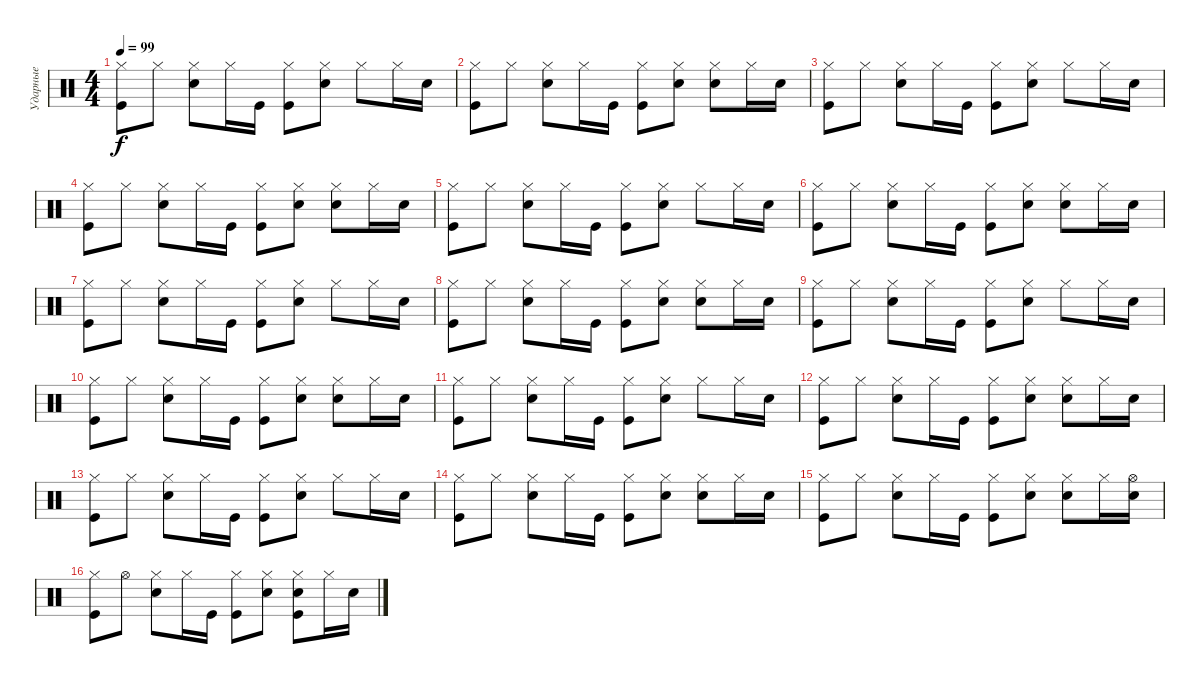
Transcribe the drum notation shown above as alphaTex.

\track ("Ударные" "Ударные") {instrument percussion}
\staff {score}
\articulation defaults
\ts (4 4)
\tempo 99
\clef neutral
\ks c
("Kick (hit)" "Hi-Hat (closed)").8{dy f} "Hi-Hat (closed)".8 ("Snare (hit) 2" "Hi-Hat (closed)").8 "Hi-Hat (closed)".16 "Kick (hit)".16 ("Hi-Hat (closed)" "Kick (hit)").8 ("Snare (hit) 2" "Hi-Hat (closed)").8 "Hi-Hat (closed)".8 "Hi-Hat (closed)".16 "Snare (hit) 2".16 |
("Kick (hit)" "Hi-Hat (closed)").8 "Hi-Hat (closed)".8 ("Snare (hit) 2" "Hi-Hat (closed)").8 "Hi-Hat (closed)".16 "Kick (hit)".16 ("Hi-Hat (closed)" "Kick (hit)").8 ("Snare (hit) 2" "Hi-Hat (closed)").8 ("Hi-Hat (closed)" "Snare (hit) 2").8 "Hi-Hat (closed)".16 "Snare (hit) 2".16 |
("Kick (hit)" "Hi-Hat (closed)").8 "Hi-Hat (closed)".8 ("Snare (hit) 2" "Hi-Hat (closed)").8 "Hi-Hat (closed)".16 "Kick (hit)".16 ("Hi-Hat (closed)" "Kick (hit)").8 ("Snare (hit) 2" "Hi-Hat (closed)").8 "Hi-Hat (closed)".8 "Hi-Hat (closed)".16 "Snare (hit) 2".16 |
("Kick (hit)" "Hi-Hat (closed)").8 "Hi-Hat (closed)".8 ("Snare (hit) 2" "Hi-Hat (closed)").8 "Hi-Hat (closed)".16 "Kick (hit)".16 ("Hi-Hat (closed)" "Kick (hit)").8 ("Snare (hit) 2" "Hi-Hat (closed)").8 ("Hi-Hat (closed)" "Snare (hit) 2").8 "Hi-Hat (closed)".16 "Snare (hit) 2".16 |
("Kick (hit)" "Hi-Hat (closed)").8 "Hi-Hat (closed)".8 ("Snare (hit) 2" "Hi-Hat (closed)").8 "Hi-Hat (closed)".16 "Kick (hit)".16 ("Hi-Hat (closed)" "Kick (hit)").8 ("Snare (hit) 2" "Hi-Hat (closed)").8 "Hi-Hat (closed)".8 "Hi-Hat (closed)".16 "Snare (hit) 2".16 |
("Kick (hit)" "Hi-Hat (closed)").8 "Hi-Hat (closed)".8 ("Snare (hit) 2" "Hi-Hat (closed)").8 "Hi-Hat (closed)".16 "Kick (hit)".16 ("Hi-Hat (closed)" "Kick (hit)").8 ("Snare (hit) 2" "Hi-Hat (closed)").8 ("Hi-Hat (closed)" "Snare (hit) 2").8 "Hi-Hat (closed)".16 "Snare (hit) 2".16 |
("Kick (hit)" "Hi-Hat (closed)").8 "Hi-Hat (closed)".8 ("Snare (hit) 2" "Hi-Hat (closed)").8 "Hi-Hat (closed)".16 "Kick (hit)".16 ("Hi-Hat (closed)" "Kick (hit)").8 ("Snare (hit) 2" "Hi-Hat (closed)").8 "Hi-Hat (closed)".8 "Hi-Hat (closed)".16 "Snare (hit) 2".16 |
("Kick (hit)" "Hi-Hat (closed)").8 "Hi-Hat (closed)".8 ("Snare (hit) 2" "Hi-Hat (closed)").8 "Hi-Hat (closed)".16 "Kick (hit)".16 ("Hi-Hat (closed)" "Kick (hit)").8 ("Snare (hit) 2" "Hi-Hat (closed)").8 ("Hi-Hat (closed)" "Snare (hit) 2").8 "Hi-Hat (closed)".16 "Snare (hit) 2".16 |
("Kick (hit)" "Hi-Hat (closed)").8 "Hi-Hat (closed)".8 ("Snare (hit) 2" "Hi-Hat (closed)").8 "Hi-Hat (closed)".16 "Kick (hit)".16 ("Hi-Hat (closed)" "Kick (hit)").8 ("Snare (hit) 2" "Hi-Hat (closed)").8 "Hi-Hat (closed)".8 "Hi-Hat (closed)".16 "Snare (hit) 2".16 |
("Kick (hit)" "Hi-Hat (closed)").8 "Hi-Hat (closed)".8 ("Snare (hit) 2" "Hi-Hat (closed)").8 "Hi-Hat (closed)".16 "Kick (hit)".16 ("Hi-Hat (closed)" "Kick (hit)").8 ("Snare (hit) 2" "Hi-Hat (closed)").8 ("Hi-Hat (closed)" "Snare (hit) 2").8 "Hi-Hat (closed)".16 "Snare (hit) 2".16 |
("Kick (hit)" "Hi-Hat (closed)").8 "Hi-Hat (closed)".8 ("Snare (hit) 2" "Hi-Hat (closed)").8 "Hi-Hat (closed)".16 "Kick (hit)".16 ("Hi-Hat (closed)" "Kick (hit)").8 ("Snare (hit) 2" "Hi-Hat (closed)").8 "Hi-Hat (closed)".8 "Hi-Hat (closed)".16 "Snare (hit) 2".16 |
("Kick (hit)" "Hi-Hat (closed)").8 "Hi-Hat (closed)".8 ("Snare (hit) 2" "Hi-Hat (closed)").8 "Hi-Hat (closed)".16 "Kick (hit)".16 ("Hi-Hat (closed)" "Kick (hit)").8 ("Snare (hit) 2" "Hi-Hat (closed)").8 ("Hi-Hat (closed)" "Snare (hit) 2").8 "Hi-Hat (closed)".16 "Snare (hit) 2".16 |
("Kick (hit)" "Hi-Hat (closed)").8 "Hi-Hat (closed)".8 ("Snare (hit) 2" "Hi-Hat (closed)").8 "Hi-Hat (closed)".16 "Kick (hit)".16 ("Hi-Hat (closed)" "Kick (hit)").8 ("Snare (hit) 2" "Hi-Hat (closed)").8 "Hi-Hat (closed)".8 "Hi-Hat (closed)".16 "Snare (hit) 2".16 |
("Kick (hit)" "Hi-Hat (closed)").8 "Hi-Hat (closed)".8 ("Snare (hit) 2" "Hi-Hat (closed)").8 "Hi-Hat (closed)".16 "Kick (hit)".16 ("Hi-Hat (closed)" "Kick (hit)").8 ("Snare (hit) 2" "Hi-Hat (closed)").8 ("Hi-Hat (closed)" "Snare (hit) 2").8 "Hi-Hat (closed)".16 "Snare (hit) 2".16 |
("Kick (hit)" "Hi-Hat (closed)").8 "Hi-Hat (closed)".8 ("Snare (hit) 2" "Hi-Hat (closed)").8 "Hi-Hat (closed)".16 "Kick (hit)".16 ("Hi-Hat (closed)" "Kick (hit)").8 ("Snare (hit) 2" "Hi-Hat (closed)").8 ("Hi-Hat (closed)" "Snare (hit) 2").8 "Hi-Hat (closed)".16 ("Snare (hit) 2" "Hi-Hat (open)").16 |
("Kick (hit)" "Hi-Hat (closed)").8 "Hi-Hat (open)".8 ("Snare (hit) 2" "Hi-Hat (closed)").8 "Hi-Hat (closed)".16 "Kick (hit)".16 ("Hi-Hat (closed)" "Kick (hit)").8 ("Snare (hit) 2" "Hi-Hat (closed)").8 ("Hi-Hat (closed)" "Kick (hit)" "Snare (hit) 2").8 "Hi-Hat (closed)".16 "Snare (hit) 2".16
